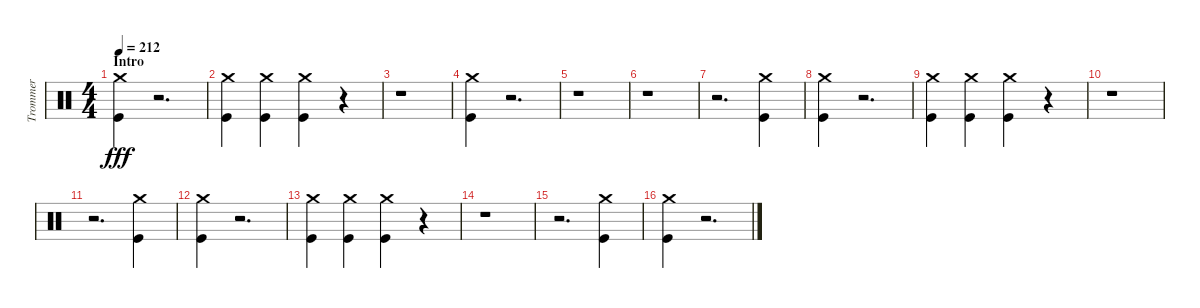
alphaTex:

\track ("Trommer" "Trommer") {instrument percussion}
\staff {score}
\articulation defaults
\ts (4 4)
\section ("" "Intro")
\tempo 212
\clef neutral
\ks c
("Crash medium (hit)" "Kick (hit)").4{dy fff} r.2{d} |
("Crash medium (hit)" "Kick (hit)").4 ("Crash medium (hit)" "Kick (hit)").4 ("Crash medium (hit)" "Kick (hit)").4 r.4 |
r.1 |
("Kick (hit)" "Crash medium (hit)").4 r.2{d} |
r.1 |
r.1 |
r.2{d} ("Kick (hit)" "Crash medium (hit)").4 |
("Kick (hit)" "Crash medium (hit)").4 r.2{d} |
("Crash medium (hit)" "Kick (hit)").4 ("Kick (hit)" "Crash medium (hit)").4 ("Kick (hit)" "Crash medium (hit)").4 r.4 |
r.1 |
r.2{d} ("Kick (hit)" "Crash medium (hit)").4 |
("Kick (hit)" "Crash medium (hit)").4 r.2{d} |
("Kick (hit)" "Crash medium (hit)").4 ("Crash medium (hit)" "Kick (hit)").4 ("Kick (hit)" "Crash medium (hit)").4 r.4 |
r.1 |
r.2{d} ("Kick (hit)" "Crash medium (hit)").4 |
("Kick (hit)" "Crash medium (hit)").4 r.2{d}
